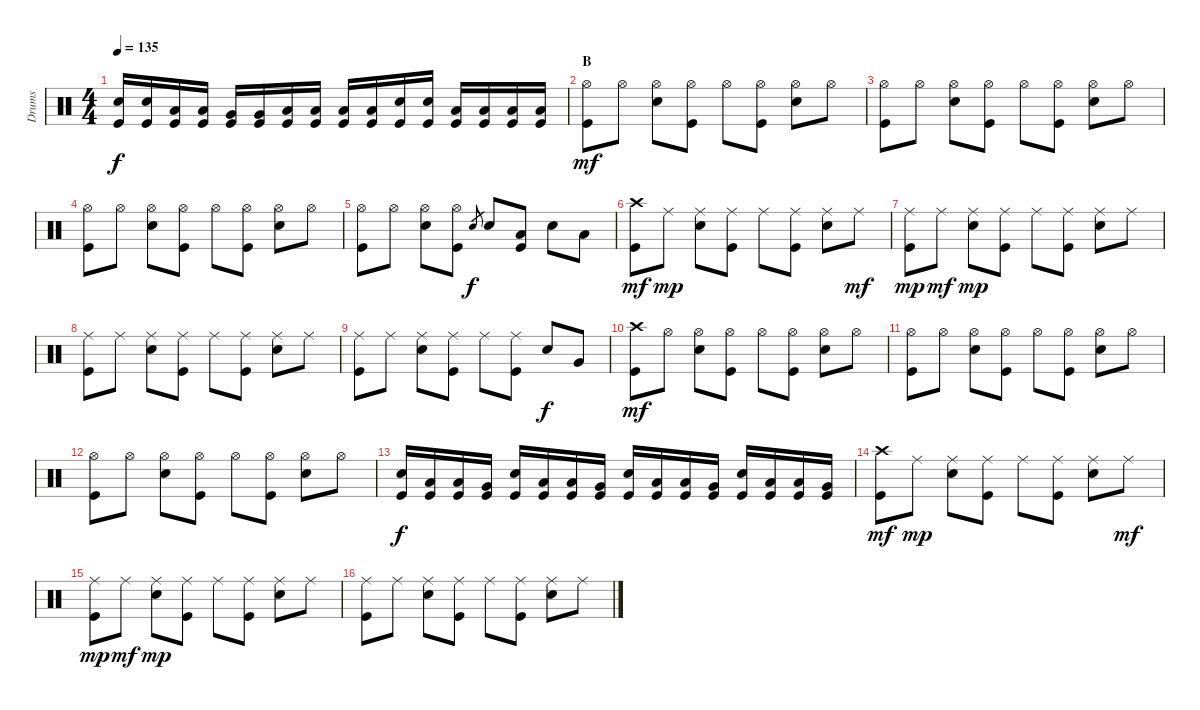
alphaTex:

\track ("Drums" "Drums") {instrument percussion}
\staff {score}
\articulation defaults
\ts (4 4)
\tempo 135
\clef neutral
\ks c
("Electric Snare (hit)" "Kick (hit)").16{dy f} ("Electric Snare (hit)" "Kick (hit)").16 ("Low Tom (hit)" "Kick (hit)").16 ("Low Tom (hit)" "Kick (hit)").16 ("Very Low Tom (hit)" "Kick (hit)").16 ("Very Low Tom (hit)" "Kick (hit)").16 ("Low Floor Tom (hit)" "Kick (hit)").16 ("Low Floor Tom (hit)" "Kick (hit)").16 ("Low Tom (hit)" "Kick (hit)").16 ("Low Tom (hit)" "Kick (hit)").16 ("Snare (hit) 2" "Kick (hit)").16 ("Snare (hit) 2" "Kick (hit)").16 ("Low Tom (hit)" "Kick (hit)").16 ("Low Tom (hit)" "Kick (hit)").16 ("Low Tom (hit)" "Kick (hit)").16 ("Low Tom (hit)" "Kick (hit)").16 |
\section ("" "B")
("Hi-Hat (open)" "Kick (hit)").8{dy mf} "Hi-Hat (open)".8 ("Hi-Hat (open)" "Electric Snare (hit)").8 ("Hi-Hat (open)" "Kick (hit)").8 "Hi-Hat (open)".8 ("Hi-Hat (open)" "Kick (hit)").8 ("Hi-Hat (open)" "Electric Snare (hit)").8 "Hi-Hat (open)".8 |
("Hi-Hat (open)" "Kick (hit)").8 "Hi-Hat (open)".8 ("Hi-Hat (open)" "Electric Snare (hit)").8 ("Hi-Hat (open)" "Kick (hit)").8 "Hi-Hat (open)".8 ("Hi-Hat (open)" "Kick (hit)").8 ("Hi-Hat (open)" "Electric Snare (hit)").8 "Hi-Hat (open)".8 |
("Hi-Hat (open)" "Kick (hit)").8 "Hi-Hat (open)".8 ("Hi-Hat (open)" "Electric Snare (hit)").8 ("Hi-Hat (open)" "Kick (hit)").8 "Hi-Hat (open)".8 ("Hi-Hat (open)" "Kick (hit)").8 ("Hi-Hat (open)" "Electric Snare (hit)").8 "Hi-Hat (open)".8 |
("Hi-Hat (open)" "Kick (hit)").8 "Hi-Hat (open)".8 ("Hi-Hat (open)" "Electric Snare (hit)").8 ("Hi-Hat (open)" "Kick (hit)").8 "Electric Snare (hit)".8{gr dy f} "Electric Snare (hit)".8 ("Low Tom (hit)" "Kick (hit)").8 "Electric Snare (hit)".8 "Low Tom (hit)".8 |
("Crash high (hit)" "Kick (hit)").8{dy mf} "Ride (middle)".8{dy mp} ("Ride (middle)" "Electric Snare (hit)").8 ("Ride (middle)" "Kick (hit)").8 "Ride (middle)".8 ("Ride (middle)" "Kick (hit)").8 ("Ride (middle)" "Electric Snare (hit)").8 "Ride (middle)".8{dy mf} |
("Ride (middle)" "Kick (hit)").8{dy mp} "Ride (middle)".8{dy mf} ("Ride (middle)" "Electric Snare (hit)").8{dy mp} ("Ride (middle)" "Kick (hit)").8 "Ride (middle)".8 ("Ride (middle)" "Kick (hit)").8 ("Ride (middle)" "Electric Snare (hit)").8 "Ride (middle)".8 |
("Ride (middle)" "Kick (hit)").8 "Ride (middle)".8 ("Ride (middle)" "Electric Snare (hit)").8 ("Ride (middle)" "Kick (hit)").8 "Ride (middle)".8 ("Ride (middle)" "Kick (hit)").8 ("Ride (middle)" "Electric Snare (hit)").8 "Ride (middle)".8 |
("Ride (middle)" "Kick (hit)").8 "Ride (middle)".8 ("Ride (middle)" "Electric Snare (hit)").8 ("Ride (middle)" "Kick (hit)").8 "Ride (middle)".8 ("Ride (middle)" "Kick (hit)").8 "Electric Snare (hit)".8{dy f} "Very Low Tom (hit)".8 |
("Crash high (hit)" "Kick (hit)").8{dy mf} "Hi-Hat (open)".8 ("Hi-Hat (open)" "Electric Snare (hit)").8 ("Hi-Hat (open)" "Kick (hit)").8 "Hi-Hat (open)".8 ("Hi-Hat (open)" "Kick (hit)").8 ("Hi-Hat (open)" "Electric Snare (hit)").8 "Hi-Hat (open)".8 |
("Hi-Hat (open)" "Kick (hit)").8 "Hi-Hat (open)".8 ("Hi-Hat (open)" "Electric Snare (hit)").8 ("Hi-Hat (open)" "Kick (hit)").8 "Hi-Hat (open)".8 ("Hi-Hat (open)" "Kick (hit)").8 ("Hi-Hat (open)" "Electric Snare (hit)").8 "Hi-Hat (open)".8 |
("Hi-Hat (open)" "Kick (hit)").8 "Hi-Hat (open)".8 ("Hi-Hat (open)" "Electric Snare (hit)").8 ("Hi-Hat (open)" "Kick (hit)").8 "Hi-Hat (open)".8 ("Hi-Hat (open)" "Kick (hit)").8 ("Hi-Hat (open)" "Electric Snare (hit)").8 "Hi-Hat (open)".8 |
("Electric Snare (hit)" "Kick (hit)").16{dy f} ("Low Tom (hit)" "Kick (hit)").16 ("Low Tom (hit)" "Kick (hit)").16 ("Very Low Tom (hit)" "Kick (hit)").16 ("Electric Snare (hit)" "Kick (hit)").16 ("Low Tom (hit)" "Kick (hit)").16 ("Low Tom (hit)" "Kick (hit)").16 ("Very Low Tom (hit)" "Kick (hit)").16 ("Electric Snare (hit)" "Kick (hit)").16 ("Low Tom (hit)" "Kick (hit)").16 ("Low Tom (hit)" "Kick (hit)").16 ("Very Low Tom (hit)" "Kick (hit)").16 ("Electric Snare (hit)" "Kick (hit)").16 ("Low Tom (hit)" "Kick (hit)").16 ("Low Tom (hit)" "Kick (hit)").16 ("Very Low Tom (hit)" "Kick (hit)").16 |
("Crash high (hit)" "Kick (hit)").8{dy mf} "Ride (middle)".8{dy mp} ("Ride (middle)" "Electric Snare (hit)").8 ("Ride (middle)" "Kick (hit)").8 "Ride (middle)".8 ("Ride (middle)" "Kick (hit)").8 ("Ride (middle)" "Electric Snare (hit)").8 "Ride (middle)".8{dy mf} |
("Ride (middle)" "Kick (hit)").8{dy mp} "Ride (middle)".8{dy mf} ("Ride (middle)" "Electric Snare (hit)").8{dy mp} ("Ride (middle)" "Kick (hit)").8 "Ride (middle)".8 ("Ride (middle)" "Kick (hit)").8 ("Ride (middle)" "Electric Snare (hit)").8 "Ride (middle)".8 |
("Ride (middle)" "Kick (hit)").8 "Ride (middle)".8 ("Ride (middle)" "Electric Snare (hit)").8 ("Ride (middle)" "Kick (hit)").8 "Ride (middle)".8 ("Ride (middle)" "Kick (hit)").8 ("Ride (middle)" "Electric Snare (hit)").8 "Ride (middle)".8
